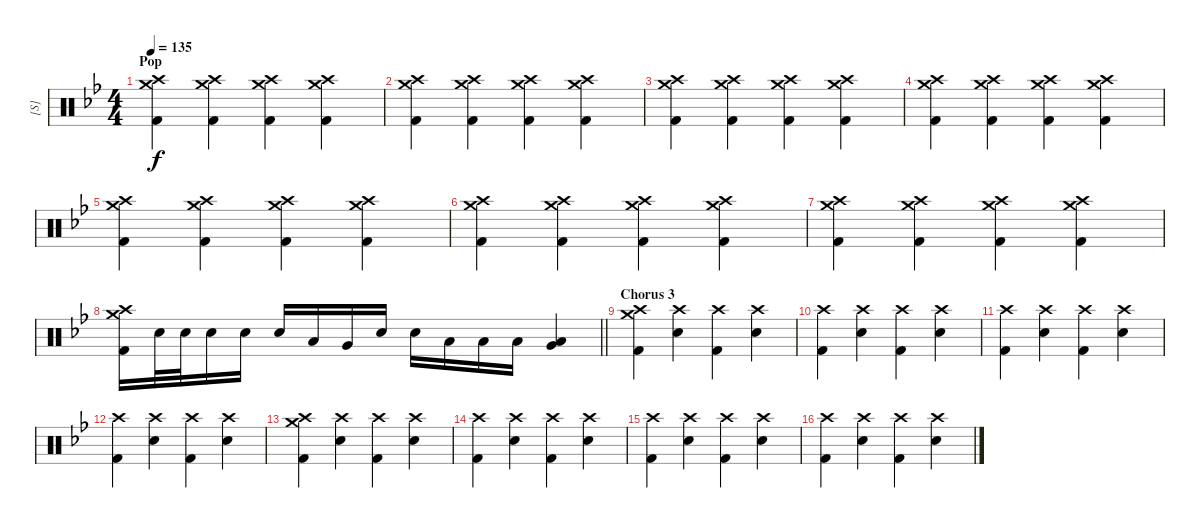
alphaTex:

\track ("[S]" "[S]") {instrument percussion}
\staff {score}
\articulation defaults
\ts (4 4)
\section ("" "Pop")
\tempo 135
\clef neutral
\ks gminor
("Crash medium (hit)" "Crash high (hit)" "Kick (hit) 2").4{dy f} ("Crash high (hit)" "Crash medium (hit)" "Kick (hit) 2").4 ("Crash medium (hit)" "Crash high (hit)" "Kick (hit) 2").4 ("Crash high (hit)" "Crash medium (hit)" "Kick (hit) 2").4 |
("Crash medium (hit)" "Crash high (hit)" "Kick (hit) 2").4 ("Crash high (hit)" "Crash medium (hit)" "Kick (hit) 2").4 ("Crash medium (hit)" "Crash high (hit)" "Kick (hit) 2").4 ("Crash high (hit)" "Crash medium (hit)" "Kick (hit) 2").4 |
("Crash medium (hit)" "Crash high (hit)" "Kick (hit) 2").4 ("Crash high (hit)" "Crash medium (hit)" "Kick (hit) 2").4 ("Crash medium (hit)" "Crash high (hit)" "Kick (hit) 2").4 ("Crash high (hit)" "Crash medium (hit)" "Kick (hit) 2").4 |
("Crash medium (hit)" "Crash high (hit)" "Kick (hit) 2").4 ("Crash high (hit)" "Crash medium (hit)" "Kick (hit) 2").4 ("Crash medium (hit)" "Crash high (hit)" "Kick (hit) 2").4 ("Crash high (hit)" "Crash medium (hit)" "Kick (hit) 2").4 |
("Crash medium (hit)" "Crash high (hit)" "Kick (hit) 2").4 ("Crash high (hit)" "Crash medium (hit)" "Kick (hit) 2").4 ("Crash medium (hit)" "Crash high (hit)" "Kick (hit) 2").4 ("Crash high (hit)" "Crash medium (hit)" "Kick (hit) 2").4 |
("Crash medium (hit)" "Crash high (hit)" "Kick (hit) 2").4 ("Crash high (hit)" "Crash medium (hit)" "Kick (hit) 2").4 ("Crash medium (hit)" "Crash high (hit)" "Kick (hit) 2").4 ("Crash high (hit)" "Crash medium (hit)" "Kick (hit) 2").4 |
("Crash medium (hit)" "Crash high (hit)" "Kick (hit) 2").4 ("Crash high (hit)" "Crash medium (hit)" "Kick (hit) 2").4 ("Crash medium (hit)" "Crash high (hit)" "Kick (hit) 2").4 ("Crash high (hit)" "Crash medium (hit)" "Kick (hit) 2").4 |
\barLineRight lightlight
("Crash medium (hit)" "Crash high (hit)" "Kick (hit) 2").16 "Electric Snare (hit)".32 "Electric Snare (hit)".32 "Electric Snare (hit)".16 "Electric Snare (hit)".16 "Electric Snare (hit)".16 "Low Tom (hit)".16 "Very Low Tom (hit)".16 "Electric Snare (hit)".16 "Electric Snare (hit)".16 "Low Tom (hit)".16 "Low Tom (hit)".16 "Low Tom (hit)".16 ("Very Low Tom (hit)" "Low Tom (hit)").4 |
\section ("" "Chorus 3")
("Crash medium (hit)" "Crash high (hit)" "Kick (hit) 2").4 ("Crash high (hit)" "Electric Snare (hit)").4 ("Crash high (hit)" "Kick (hit) 2").4 ("Crash high (hit)" "Electric Snare (hit)").4 |
("Crash high (hit)" "Kick (hit) 2").4 ("Crash high (hit)" "Electric Snare (hit)").4 ("Crash high (hit)" "Kick (hit) 2").4 ("Crash high (hit)" "Electric Snare (hit)").4 |
("Crash high (hit)" "Kick (hit) 2").4 ("Crash high (hit)" "Electric Snare (hit)").4 ("Crash high (hit)" "Kick (hit) 2").4 ("Crash high (hit)" "Electric Snare (hit)").4 |
("Crash high (hit)" "Kick (hit) 2").4 ("Crash high (hit)" "Electric Snare (hit)").4 ("Crash high (hit)" "Kick (hit) 2").4 ("Crash high (hit)" "Electric Snare (hit)").4 |
("Crash medium (hit)" "Crash high (hit)" "Kick (hit) 2").4 ("Crash high (hit)" "Electric Snare (hit)").4 ("Crash high (hit)" "Kick (hit) 2").4 ("Crash high (hit)" "Electric Snare (hit)").4 |
("Crash high (hit)" "Kick (hit) 2").4 ("Crash high (hit)" "Electric Snare (hit)").4 ("Crash high (hit)" "Kick (hit) 2").4 ("Crash high (hit)" "Electric Snare (hit)").4 |
("Crash high (hit)" "Kick (hit) 2").4 ("Crash high (hit)" "Electric Snare (hit)").4 ("Crash high (hit)" "Kick (hit) 2").4 ("Crash high (hit)" "Electric Snare (hit)").4 |
("Crash high (hit)" "Kick (hit) 2").4 ("Crash high (hit)" "Electric Snare (hit)").4 ("Crash high (hit)" "Kick (hit) 2").4 ("Crash high (hit)" "Electric Snare (hit)").4
